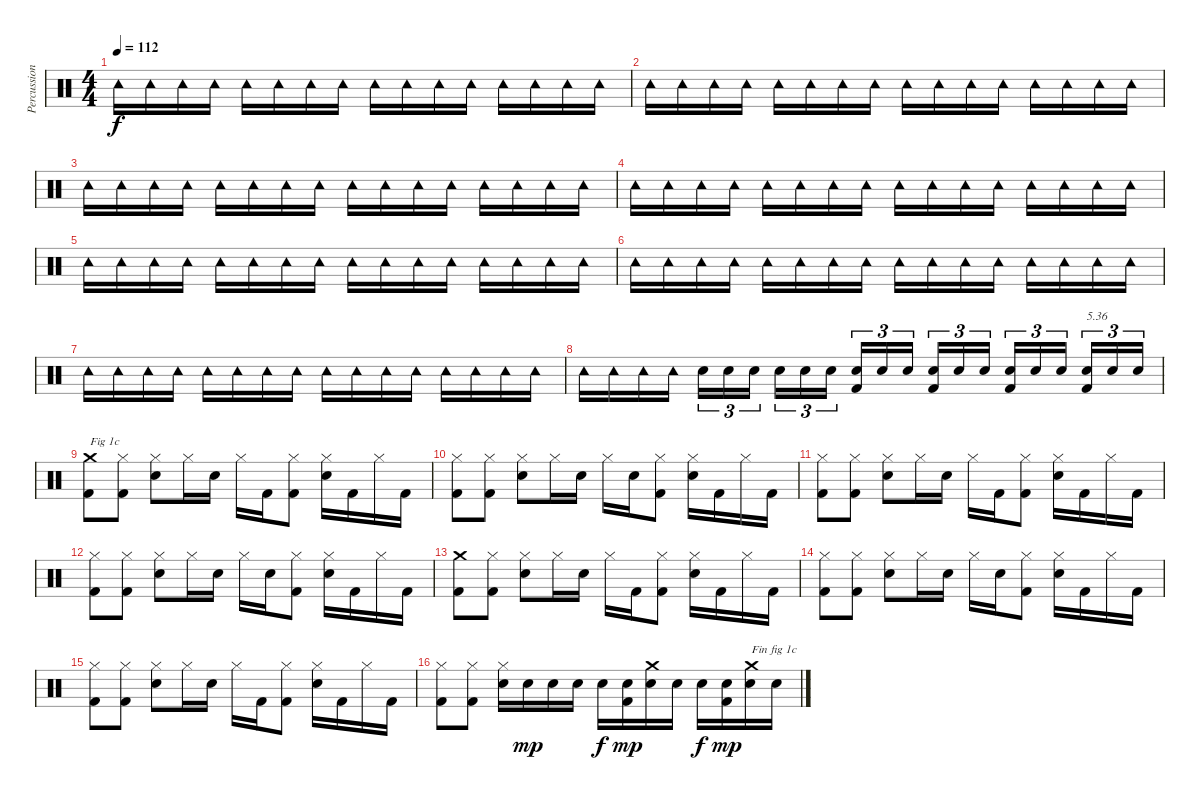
\track ("Percussions" "Percussion") {instrument percussion}
\staff {score}
\articulation defaults
\ts (4 4)
\tempo 112
\clef neutral
\ks c "Tambourine (hit)".16{dy f} "Tambourine (hit)".16 "Tambourine (hit)".16 "Tambourine (hit)".16 "Tambourine (hit)".16 "Tambourine (hit)".16 "Tambourine (hit)".16 "Tambourine (hit)".16 "Tambourine (hit)".16 "Tambourine (hit)".16 "Tambourine (hit)".16 "Tambourine (hit)".16 "Tambourine (hit)".16 "Tambourine (hit)".16 "Tambourine (hit)".16 "Tambourine (hit)".16
|
"Tambourine (hit)".16 "Tambourine (hit)".16 "Tambourine (hit)".16 "Tambourine (hit)".16 "Tambourine (hit)".16 "Tambourine (hit)".16 "Tambourine (hit)".16 "Tambourine (hit)".16 "Tambourine (hit)".16 "Tambourine (hit)".16 "Tambourine (hit)".16 "Tambourine (hit)".16 "Tambourine (hit)".16 "Tambourine (hit)".16 "Tambourine (hit)".16 "Tambourine (hit)".16 |
"Tambourine (hit)".16 "Tambourine (hit)".16 "Tambourine (hit)".16 "Tambourine (hit)".16 "Tambourine (hit)".16 "Tambourine (hit)".16 "Tambourine (hit)".16 "Tambourine (hit)".16 "Tambourine (hit)".16 "Tambourine (hit)".16 "Tambourine (hit)".16 "Tambourine (hit)".16 "Tambourine (hit)".16 "Tambourine (hit)".16 "Tambourine (hit)".16 "Tambourine (hit)".16 |
"Tambourine (hit)".16 "Tambourine (hit)".16 "Tambourine (hit)".16 "Tambourine (hit)".16 "Tambourine (hit)".16 "Tambourine (hit)".16 "Tambourine (hit)".16 "Tambourine (hit)".16 "Tambourine (hit)".16 "Tambourine (hit)".16 "Tambourine (hit)".16 "Tambourine (hit)".16 "Tambourine (hit)".16 "Tambourine (hit)".16 "Tambourine (hit)".16 "Tambourine (hit)".16 |
"Tambourine (hit)".16 "Tambourine (hit)".16 "Tambourine (hit)".16 "Tambourine (hit)".16 "Tambourine (hit)".16 "Tambourine (hit)".16 "Tambourine (hit)".16 "Tambourine (hit)".16 "Tambourine (hit)".16 "Tambourine (hit)".16 "Tambourine (hit)".16 "Tambourine (hit)".16 "Tambourine (hit)".16 "Tambourine (hit)".16 "Tambourine (hit)".16 "Tambourine (hit)".16 |
"Tambourine (hit)".16 "Tambourine (hit)".16 "Tambourine (hit)".16 "Tambourine (hit)".16 "Tambourine (hit)".16 "Tambourine (hit)".16 "Tambourine (hit)".16 "Tambourine (hit)".16 "Tambourine (hit)".16 "Tambourine (hit)".16 "Tambourine (hit)".16 "Tambourine (hit)".16 "Tambourine (hit)".16 "Tambourine (hit)".16 "Tambourine (hit)".16 "Tambourine (hit)".16 |
"Tambourine (hit)".16 "Tambourine (hit)".16 "Tambourine (hit)".16 "Tambourine (hit)".16 "Tambourine (hit)".16 "Tambourine (hit)".16 "Tambourine (hit)".16 "Tambourine (hit)".16 "Tambourine (hit)".16 "Tambourine (hit)".16 "Tambourine (hit)".16 "Tambourine (hit)".16 "Tambourine (hit)".16 "Tambourine (hit)".16 "Tambourine (hit)".16 "Tambourine (hit)".16 |
"Tambourine (hit)".16 "Tambourine (hit)".16 "Tambourine (hit)".16 "Tambourine (hit)".16 "Snare (hit) 2".16{tu (3 2)} "Snare (hit) 2".16{tu (3 2)} "Snare (hit) 2".16{tu (3 2)} "Snare (hit) 2".16{tu (3 2)} "Snare (hit) 2".16{tu (3 2)} "Snare (hit) 2".16{tu (3 2)} ("Kick (hit) 2" "Snare (hit) 2").16{tu (3 2)} "Snare (hit) 2".16{tu (3 2)} "Snare (hit) 2".16{tu (3 2)} ("Kick (hit) 2" "Snare (hit) 2").16{tu (3 2)} "Snare (hit) 2".16{tu (3 2)} "Snare (hit) 2".16{tu (3 2)} ("Kick (hit) 2" "Snare (hit) 2").16{tu (3 2)} "Snare (hit) 2".16{tu (3 2)} "Snare (hit) 2".16{tu (3 2)} ("Kick (hit) 2" "Snare (hit) 2").16{tu (3 2) txt "5.36"} "Snare (hit) 2".16{tu (3 2)} "Snare (hit) 2".16{tu (3 2)} |
("Kick (hit) 2" "Crash medium (hit)").8{txt "Fig 1c"} ("Kick (hit) 2" "Hi-Hat (closed)").8 ("Snare (hit) 2" "Hi-Hat (closed)").8 "Hi-Hat (closed)".16 "Snare (hit) 2".16 "Hi-Hat (closed)".16 "Kick (hit) 2".16 ("Kick (hit) 2" "Hi-Hat (closed)").8 ("Snare (hit) 2" "Hi-Hat (closed)").16 "Kick (hit) 2".16 "Hi-Hat (closed)".16 "Kick (hit) 2".16 |
("Kick (hit) 2" "Hi-Hat (closed)").8 ("Kick (hit) 2" "Hi-Hat (closed)").8 ("Snare (hit) 2" "Hi-Hat (closed)").8 "Hi-Hat (closed)".16 "Snare (hit) 2".16 "Hi-Hat (closed)".16 "Snare (hit) 2".16 ("Kick (hit) 2" "Hi-Hat (closed)").8 ("Snare (hit) 2" "Hi-Hat (closed)").16 "Kick (hit) 2".16 "Hi-Hat (closed)".16 "Kick (hit) 2".16 |
("Kick (hit) 2" "Hi-Hat (closed)").8 ("Kick (hit) 2" "Hi-Hat (closed)").8 ("Snare (hit) 2" "Hi-Hat (closed)").8 "Hi-Hat (closed)".16 "Snare (hit) 2".16 "Hi-Hat (closed)".16 "Kick (hit) 2".16 ("Kick (hit) 2" "Hi-Hat (closed)").8 ("Snare (hit) 2" "Hi-Hat (closed)").16 "Kick (hit) 2".16 "Hi-Hat (closed)".16 "Kick (hit) 2".16 |
("Kick (hit) 2" "Hi-Hat (closed)").8 ("Kick (hit) 2" "Hi-Hat (closed)").8 ("Snare (hit) 2" "Hi-Hat (closed)").8 "Hi-Hat (closed)".16 "Snare (hit) 2".16 "Hi-Hat (closed)".16 "Snare (hit) 2".16 ("Kick (hit) 2" "Hi-Hat (closed)").8 ("Snare (hit) 2" "Hi-Hat (closed)").16 "Kick (hit) 2".16 "Hi-Hat (closed)".16 "Kick (hit) 2".16 |
("Kick (hit) 2" "Crash medium (hit)").8 ("Kick (hit) 2" "Hi-Hat (closed)").8 ("Snare (hit) 2" "Hi-Hat (closed)").8 "Hi-Hat (closed)".16 "Snare (hit) 2".16 "Hi-Hat (closed)".16 "Kick (hit) 2".16 ("Kick (hit) 2" "Hi-Hat (closed)").8 ("Snare (hit) 2" "Hi-Hat (closed)").16 "Kick (hit) 2".16 "Hi-Hat (closed)".16 "Kick (hit) 2".16 |
("Kick (hit) 2" "Hi-Hat (closed)").8 ("Kick (hit) 2" "Hi-Hat (closed)").8 ("Snare (hit) 2" "Hi-Hat (closed)").8 "Hi-Hat (closed)".16 "Snare (hit) 2".16 "Hi-Hat (closed)".16 "Snare (hit) 2".16 ("Kick (hit) 2" "Hi-Hat (closed)").8 ("Snare (hit) 2" "Hi-Hat (closed)").16 "Kick (hit) 2".16 "Hi-Hat (closed)".16 "Kick (hit) 2".16 |
("Kick (hit) 2" "Hi-Hat (closed)").8 ("Kick (hit) 2" "Hi-Hat (closed)").8 ("Snare (hit) 2" "Hi-Hat (closed)").8 "Hi-Hat (closed)".16 "Snare (hit) 2".16 "Hi-Hat (closed)".16 "Kick (hit) 2".16 ("Kick (hit) 2" "Hi-Hat (closed)").8 ("Snare (hit) 2" "Hi-Hat (closed)").16 "Kick (hit) 2".16 "Hi-Hat (closed)".16 "Kick (hit) 2".16 |
("Kick (hit) 2" "Hi-Hat (closed)").8 ("Kick (hit) 2" "Hi-Hat (closed)").8 ("Snare (hit) 2" "Hi-Hat (closed)").16 "Snare (hit) 2".16{dy mp} "Snare (hit) 2".16 "Snare (hit) 2".16 "Snare (hit) 2".16{dy f} ("Kick (hit) 2" "Snare (hit) 2").16{dy mp} ("Snare (hit) 2" "Crash medium (hit)").16 "Snare (hit) 2".16 "Snare (hit) 2".16{dy f} ("Kick (hit) 2" "Snare (hit) 2").16{dy mp} ("Snare (hit) 2" "Crash medium (hit)").16{txt "Fin fig 1c"} "Snare (hit) 2".16
